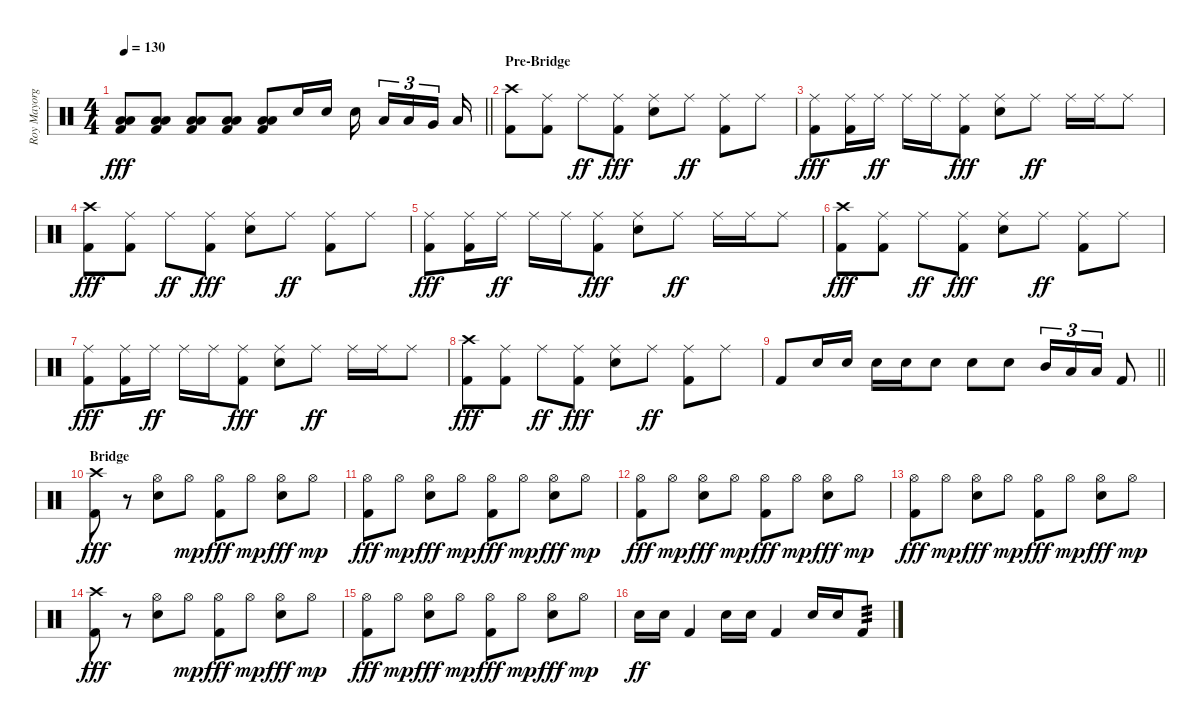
\track ("Roy Mayorga (Drums)" "Roy Mayorg") {instrument percussion}
\staff {score}
\articulation defaults
\ts (4 4)
\tempo 130
\clef neutral
\barLineRight lightlight
\ks c
("Low Tom (hit)" "Low Floor Tom (hit)" "Kick (hit) 2").8{dy fff} ("Low Tom (hit)" "Low Floor Tom (hit)" "Kick (hit) 2").8 ("Low Tom (hit)" "Low Floor Tom (hit)" "Kick (hit) 2").8 ("Low Tom (hit)" "Low Floor Tom (hit)" "Kick (hit) 2").8 ("Low Tom (hit)" "Low Floor Tom (hit)" "Kick (hit) 2").8 "Electric Snare (hit)".16 "Electric Snare (hit)".16 "Electric Snare (hit)".16{beam splitsecondary} "Low Tom (hit)".16{tu (3 2)} "Low Tom (hit)".16{tu (3 2)} "Very Low Tom (hit)".16{tu (3 2) beam splitsecondary} "Low Floor Tom (hit)".16 |
\section ("" "Pre-Bridge")
("Crash high (hit)" "Kick (hit) 2").8 ("Ride (middle)" "Kick (hit) 2").8 "Ride (middle)".8{dy ff} ("Ride (middle)" "Kick (hit) 2").8{dy fff} ("Ride (middle)" "Electric Snare (hit)").8 "Ride (middle)".8{dy ff} ("Ride (middle)" "Kick (hit) 2").8 "Ride (middle)".8 |
("Ride (middle)" "Kick (hit) 2").8{dy fff} ("Ride (middle)" "Kick (hit) 2").16 "Ride (middle)".16{dy ff} "Ride (middle)".16 "Ride (middle)".16 ("Ride (middle)" "Kick (hit) 2").8{dy fff} ("Ride (middle)" "Electric Snare (hit)").8 "Ride (middle)".8{dy ff} "Ride (middle)".16 "Ride (middle)".16 "Ride (middle)".8 |
("Crash high (hit)" "Kick (hit) 2").8{dy fff} ("Ride (middle)" "Kick (hit) 2").8 "Ride (middle)".8{dy ff} ("Ride (middle)" "Kick (hit) 2").8{dy fff} ("Ride (middle)" "Electric Snare (hit)").8 "Ride (middle)".8{dy ff} ("Ride (middle)" "Kick (hit) 2").8 "Ride (middle)".8 |
("Ride (middle)" "Kick (hit) 2").8{dy fff} ("Ride (middle)" "Kick (hit) 2").16 "Ride (middle)".16{dy ff} "Ride (middle)".16 "Ride (middle)".16 ("Ride (middle)" "Kick (hit) 2").8{dy fff} ("Ride (middle)" "Electric Snare (hit)").8 "Ride (middle)".8{dy ff} "Ride (middle)".16 "Ride (middle)".16 "Ride (middle)".8 |
("Crash high (hit)" "Kick (hit) 2").8{dy fff} ("Ride (middle)" "Kick (hit) 2").8 "Ride (middle)".8{dy ff} ("Ride (middle)" "Kick (hit) 2").8{dy fff} ("Ride (middle)" "Electric Snare (hit)").8 "Ride (middle)".8{dy ff} ("Ride (middle)" "Kick (hit) 2").8 "Ride (middle)".8 |
("Ride (middle)" "Kick (hit) 2").8{dy fff} ("Ride (middle)" "Kick (hit) 2").16 "Ride (middle)".16{dy ff} "Ride (middle)".16 "Ride (middle)".16 ("Ride (middle)" "Kick (hit) 2").8{dy fff} ("Ride (middle)" "Electric Snare (hit)").8 "Ride (middle)".8{dy ff} "Ride (middle)".16 "Ride (middle)".16 "Ride (middle)".8 |
("Crash high (hit)" "Kick (hit) 2").8{dy fff} ("Ride (middle)" "Kick (hit) 2").8 "Ride (middle)".8{dy ff} ("Ride (middle)" "Kick (hit) 2").8{dy fff} ("Ride (middle)" "Electric Snare (hit)").8 "Ride (middle)".8{dy ff} ("Ride (middle)" "Kick (hit) 2").8 "Ride (middle)".8 |
\barLineRight lightlight "Kick (hit) 2".8 "Electric Snare (hit)".16 "Electric Snare (hit)".16 "Electric Snare (hit)".16 "Electric Snare (hit)".16 "Electric Snare (hit)".8 "Electric Snare (hit)".8 "Electric Snare (hit)".8 "Mid Tom (hit)".16{tu (3 2)} "Low Tom (hit)".16{tu (3 2)} "Low Tom (hit)".16{tu (3 2)} "Kick (hit) 2".8
|
\section ("" "Bridge")
("Crash high (hit)" "Kick (hit) 2").8{dy fff} r.8 ("Hi-Hat (open)" "Electric Snare (hit)").8 "Hi-Hat (open)".8{dy mp} ("Hi-Hat (open)" "Kick (hit) 2").8{dy fff} "Hi-Hat (open)".8{dy mp} ("Hi-Hat (open)" "Electric Snare (hit)").8{dy fff} "Hi-Hat (open)".8{dy mp} |
("Hi-Hat (open)" "Kick (hit) 2").8{dy fff} "Hi-Hat (open)".8{dy mp} ("Hi-Hat (open)" "Electric Snare (hit)").8{dy fff} "Hi-Hat (open)".8{dy mp} ("Hi-Hat (open)" "Kick (hit) 2").8{dy fff} "Hi-Hat (open)".8{dy mp} ("Hi-Hat (open)" "Electric Snare (hit)").8{dy fff} "Hi-Hat (open)".8{dy mp} |
("Hi-Hat (open)" "Kick (hit) 2").8{dy fff} "Hi-Hat (open)".8{dy mp} ("Hi-Hat (open)" "Electric Snare (hit)").8{dy fff} "Hi-Hat (open)".8{dy mp} ("Hi-Hat (open)" "Kick (hit) 2").8{dy fff} "Hi-Hat (open)".8{dy mp} ("Hi-Hat (open)" "Electric Snare (hit)").8{dy fff} "Hi-Hat (open)".8{dy mp} |
("Hi-Hat (open)" "Kick (hit) 2").8{dy fff} "Hi-Hat (open)".8{dy mp} ("Hi-Hat (open)" "Electric Snare (hit)").8{dy fff} "Hi-Hat (open)".8{dy mp} ("Hi-Hat (open)" "Kick (hit) 2").8{dy fff} "Hi-Hat (open)".8{dy mp} ("Hi-Hat (open)" "Electric Snare (hit)").8{dy fff} "Hi-Hat (open)".8{dy mp} |
("Crash high (hit)" "Kick (hit) 2").8{dy fff} r.8 ("Hi-Hat (open)" "Electric Snare (hit)").8 "Hi-Hat (open)".8{dy mp} ("Hi-Hat (open)" "Kick (hit) 2").8{dy fff} "Hi-Hat (open)".8{dy mp} ("Hi-Hat (open)" "Electric Snare (hit)").8{dy fff} "Hi-Hat (open)".8{dy mp} |
("Hi-Hat (open)" "Kick (hit) 2").8{dy fff} "Hi-Hat (open)".8{dy mp} ("Hi-Hat (open)" "Electric Snare (hit)").8{dy fff} "Hi-Hat (open)".8{dy mp} ("Hi-Hat (open)" "Kick (hit) 2").8{dy fff} "Hi-Hat (open)".8{dy mp} ("Hi-Hat (open)" "Electric Snare (hit)").8{dy fff} "Hi-Hat (open)".8{dy mp} |
"Electric Snare (hit)".16{dy ff} "Electric Snare (hit)".16 "Kick (hit) 2".4 "Electric Snare (hit)".16 "Electric Snare (hit)".16 "Kick (hit) 2".4 "Electric Snare (hit)".16 "Electric Snare (hit)".16 "Kick (hit) 2".8{tp 3}
